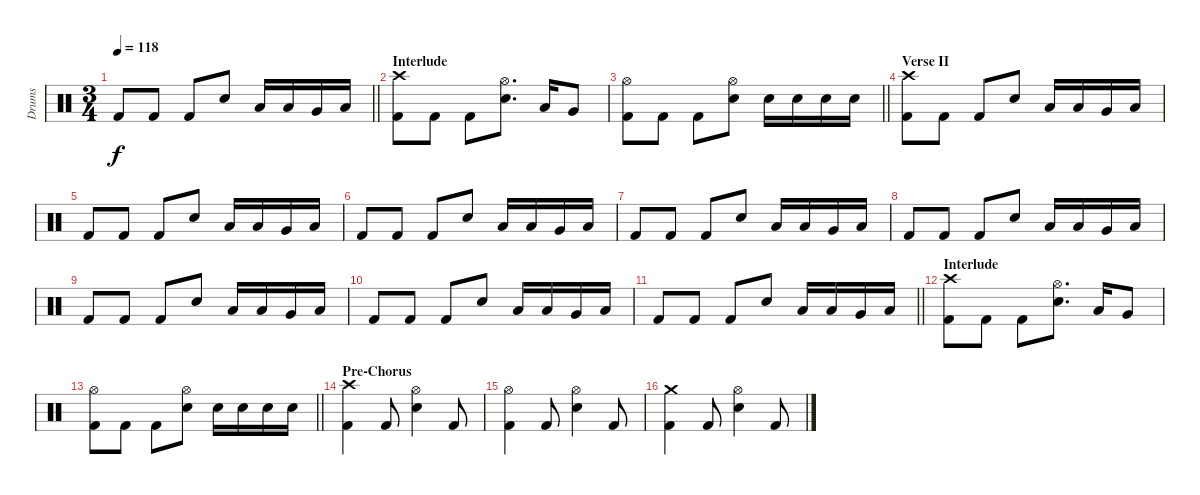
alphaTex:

\track ("Drums" "Drums") {instrument percussion}
\staff {score}
\articulation defaults
\ts (3 4)
\tempo 118
\clef neutral
\barLineRight lightlight
\ks c "Kick (hit) 2".8{dy f} "Kick (hit) 2".8 "Kick (hit) 2".8 "Snare (hit) 2".8 "Low Tom (hit)".16 "Low Tom (hit)".16 "Very Low Tom (hit)".16 "Low Floor Tom (hit)".16
|
\section ("" "Interlude")
("Crash high (hit)" "Kick (hit) 2").8 "Kick (hit) 2".8 "Kick (hit) 2".8 ("Hi-Hat (open)" "Snare (hit) 2").8{d} "Low Tom (hit)".16 "Very Low Tom (hit)".8 |
\barLineRight lightlight
("Hi-Hat (open)" "Kick (hit) 2").8 "Kick (hit) 2".8 "Kick (hit) 2".8 ("Hi-Hat (open)" "Snare (hit) 2").8 "Snare (hit) 2".16 "Snare (hit) 2".16 "Snare (hit) 2".16 "Snare (hit) 2".16 |
\section ("" "Verse II")
("Crash high (hit)" "Kick (hit) 2").8 "Kick (hit) 2".8 "Kick (hit) 2".8 "Snare (hit) 2".8 "Low Tom (hit)".16 "Low Tom (hit)".16 "Very Low Tom (hit)".16 "Low Floor Tom (hit)".16 |
"Kick (hit) 2".8 "Kick (hit) 2".8 "Kick (hit) 2".8 "Snare (hit) 2".8 "Low Tom (hit)".16 "Low Tom (hit)".16 "Very Low Tom (hit)".16 "Low Floor Tom (hit)".16 |
"Kick (hit) 2".8 "Kick (hit) 2".8 "Kick (hit) 2".8 "Snare (hit) 2".8 "Low Tom (hit)".16 "Low Tom (hit)".16 "Very Low Tom (hit)".16 "Low Floor Tom (hit)".16 |
"Kick (hit) 2".8 "Kick (hit) 2".8 "Kick (hit) 2".8 "Snare (hit) 2".8 "Low Tom (hit)".16 "Low Tom (hit)".16 "Very Low Tom (hit)".16 "Low Floor Tom (hit)".16 |
"Kick (hit) 2".8 "Kick (hit) 2".8 "Kick (hit) 2".8 "Snare (hit) 2".8 "Low Tom (hit)".16 "Low Tom (hit)".16 "Very Low Tom (hit)".16 "Low Floor Tom (hit)".16 |
"Kick (hit) 2".8 "Kick (hit) 2".8 "Kick (hit) 2".8 "Snare (hit) 2".8 "Low Tom (hit)".16 "Low Tom (hit)".16 "Very Low Tom (hit)".16 "Low Floor Tom (hit)".16 |
"Kick (hit) 2".8 "Kick (hit) 2".8 "Kick (hit) 2".8 "Snare (hit) 2".8 "Low Tom (hit)".16 "Low Tom (hit)".16 "Very Low Tom (hit)".16 "Low Floor Tom (hit)".16 |
\barLineRight lightlight "Kick (hit) 2".8 "Kick (hit) 2".8 "Kick (hit) 2".8 "Snare (hit) 2".8 "Low Tom (hit)".16 "Low Tom (hit)".16 "Very Low Tom (hit)".16 "Low Floor Tom (hit)".16
|
\section ("" "Interlude")
("Crash high (hit)" "Kick (hit) 2").8 "Kick (hit) 2".8 "Kick (hit) 2".8 ("Hi-Hat (open)" "Snare (hit) 2").8{d} "Low Tom (hit)".16 "Very Low Tom (hit)".8 |
\barLineRight lightlight
("Hi-Hat (open)" "Kick (hit) 2").8 "Kick (hit) 2".8 "Kick (hit) 2".8 ("Hi-Hat (open)" "Snare (hit) 2").8 "Snare (hit) 2".16 "Snare (hit) 2".16 "Snare (hit) 2".16 "Snare (hit) 2".16 |
\section ("" "Pre-Chorus")
("Crash high (hit)" "Kick (hit) 2").4 "Kick (hit) 2".8 ("Hi-Hat (open)" "Snare (hit) 2").4 "Kick (hit) 2".8 |
("Hi-Hat (open)" "Kick (hit) 2").4 "Kick (hit) 2".8 ("Hi-Hat (open)" "Snare (hit) 2").4 "Kick (hit) 2".8 |
("Crash medium (hit)" "Kick (hit) 2").4 "Kick (hit) 2".8 ("Hi-Hat (open)" "Snare (hit) 2").4 "Kick (hit) 2".8
